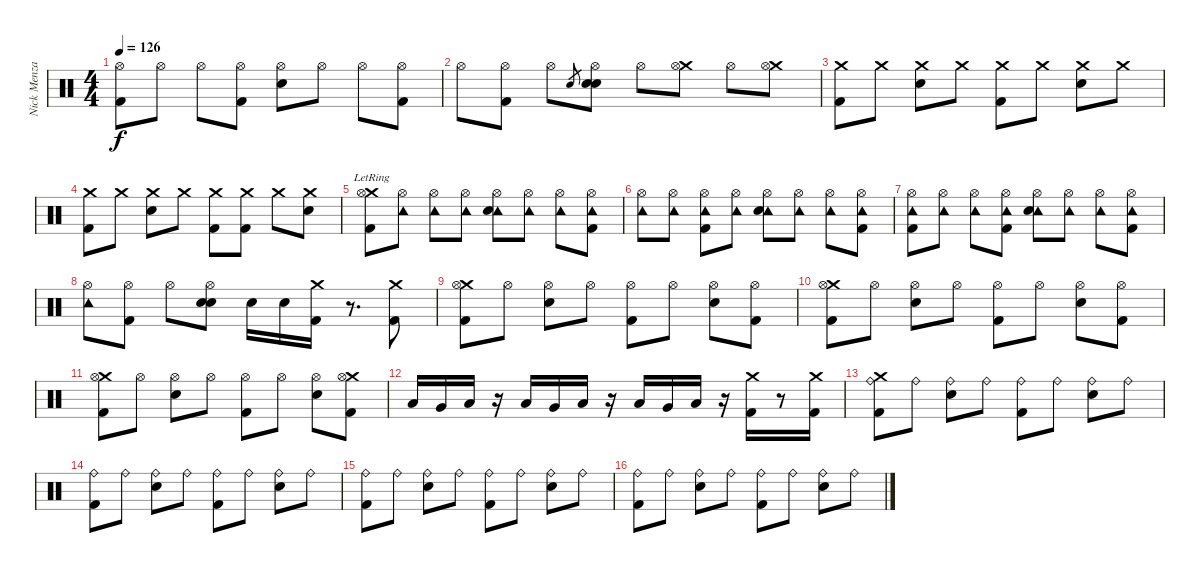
\track ("Nick Menza" "Nick Menza") {instrument percussion}
\staff {score}
\articulation defaults
\ts (4 4)
\tempo 126
\clef neutral
\ks c
("Hi-Hat (open)" "Kick (hit) 2").8{dy f} "Hi-Hat (open)".8 "Hi-Hat (open)".8 ("Hi-Hat (open)" "Kick (hit) 2").8 ("Hi-Hat (open)" "Electric Snare (hit)").8 "Hi-Hat (open)".8 "Hi-Hat (open)".8 ("Hi-Hat (open)" "Kick (hit) 2").8 |
"Hi-Hat (open)".8 ("Hi-Hat (open)" "Kick (hit) 2").8 "Hi-Hat (open)".8 "Electric Snare (hit)".8{gr} ("Electric Snare (hit)" "Hi-Hat (open)" "Electric Snare (hit)").8 "Hi-Hat (open)".8 ("Crash medium (hit)" "Hi-Hat (open)").8 "Hi-Hat (open)".8 ("Crash medium (hit)" "Hi-Hat (open)").8 |
("Crash medium (hit)" "Kick (hit) 2").8 "Crash medium (hit)".8 ("Crash medium (hit)" "Electric Snare (hit)").8 "Crash medium (hit)".8 ("Crash medium (hit)" "Kick (hit) 2").8 "Crash medium (hit)".8 ("Crash medium (hit)" "Electric Snare (hit)").8 "Crash medium (hit)".8 |
("Crash medium (hit)" "Kick (hit) 2").8 "Crash medium (hit)".8 ("Crash medium (hit)" "Electric Snare (hit)").8 "Crash medium (hit)".8 ("Crash medium (hit)" "Kick (hit) 2").8 ("Crash medium (hit)" "Kick (hit) 2").8 "Crash medium (hit)".8 ("Crash medium (hit)" "Electric Snare (hit)").8 |
("Crash medium (hit)"{lr} "Hi-Hat (open)" "Kick (hit) 2").8 ("Tambourine (hit)" "Hi-Hat (open)").8 ("Tambourine (hit)" "Hi-Hat (open)").8 ("Tambourine (hit)" "Hi-Hat (open)").8 ("Tambourine (hit)" "Hi-Hat (open)" "Electric Snare (hit)").8 ("Tambourine (hit)" "Hi-Hat (open)").8 ("Tambourine (hit)" "Hi-Hat (open)").8 ("Tambourine (hit)" "Hi-Hat (open)" "Kick (hit) 2").8 |
("Tambourine (hit)" "Hi-Hat (open)").8 ("Tambourine (hit)" "Hi-Hat (open)").8 ("Tambourine (hit)" "Hi-Hat (open)" "Kick (hit) 2").8 ("Tambourine (hit)" "Hi-Hat (open)").8 ("Tambourine (hit)" "Hi-Hat (open)" "Electric Snare (hit)").8 ("Tambourine (hit)" "Hi-Hat (open)").8 ("Tambourine (hit)" "Hi-Hat (open)").8 ("Tambourine (hit)" "Hi-Hat (open)" "Kick (hit) 2").8 |
("Tambourine (hit)" "Hi-Hat (open)" "Kick (hit) 2").8 ("Tambourine (hit)" "Hi-Hat (open)").8 ("Tambourine (hit)" "Hi-Hat (open)").8 ("Tambourine (hit)" "Hi-Hat (open)" "Kick (hit) 2").8 ("Tambourine (hit)" "Hi-Hat (open)" "Electric Snare (hit)").8 ("Tambourine (hit)" "Hi-Hat (open)").8 ("Tambourine (hit)" "Hi-Hat (open)").8 ("Tambourine (hit)" "Hi-Hat (open)" "Kick (hit) 2").8 |
("Tambourine (hit)" "Hi-Hat (open)").8 ("Hi-Hat (open)" "Kick (hit) 2").8 "Hi-Hat (open)".8 ("Electric Snare (hit)" "Hi-Hat (open)" "Electric Snare (hit)").8 "Electric Snare (hit)".16 "Electric Snare (hit)".16 ("Crash medium (hit)" "Kick (hit) 2").16 r.8{d} ("Crash medium (hit)" "Kick (hit) 2").8 |
("Crash medium (hit)" "Hi-Hat (open)" "Kick (hit) 2").8 "Hi-Hat (open)".8 ("Hi-Hat (open)" "Electric Snare (hit)").8 "Hi-Hat (open)".8 ("Hi-Hat (open)" "Kick (hit) 2").8 "Hi-Hat (open)".8 ("Hi-Hat (open)" "Electric Snare (hit)").8 ("Hi-Hat (open)" "Kick (hit) 2").8 |
("Crash medium (hit)" "Hi-Hat (open)" "Kick (hit) 2").8 "Hi-Hat (open)".8 ("Hi-Hat (open)" "Electric Snare (hit)").8 "Hi-Hat (open)".8 ("Hi-Hat (open)" "Kick (hit) 2").8 "Hi-Hat (open)".8 ("Hi-Hat (open)" "Electric Snare (hit)").8 ("Hi-Hat (open)" "Kick (hit) 2").8 |
("Crash medium (hit)" "Hi-Hat (open)" "Kick (hit) 2").8 "Hi-Hat (open)".8 ("Hi-Hat (open)" "Electric Snare (hit)").8 "Hi-Hat (open)".8 ("Hi-Hat (open)" "Kick (hit) 2").8 "Hi-Hat (open)".8 ("Hi-Hat (open)" "Electric Snare (hit)").8 ("Crash medium (hit)" "Hi-Hat (open)" "Kick (hit) 2").8 |
"Low Tom (hit)".16 "Very Low Tom (hit)".16 "Low Floor Tom (hit)".16 r.16 "Low Tom (hit)".16 "Very Low Tom (hit)".16 "Low Floor Tom (hit)".16 r.16 "Low Tom (hit)".16 "Very Low Tom (hit)".16 "Low Floor Tom (hit)".16 r.16 ("Crash medium (hit)" "Kick (hit) 2").16 r.8 ("Crash medium (hit)" "Kick (hit) 2").16 |
("Crash medium (hit)" "Ride (bell)" "Kick (hit) 2").8 "Ride (bell)".8 ("Electric Snare (hit)" "Ride (bell)").8 "Ride (bell)".8 ("Ride (bell)" "Kick (hit) 2").8 "Ride (bell)".8 ("Electric Snare (hit)" "Ride (bell)").8 "Ride (bell)".8 |
("Ride (bell)" "Kick (hit) 2").8 "Ride (bell)".8 ("Electric Snare (hit)" "Ride (bell)").8 "Ride (bell)".8 ("Ride (bell)" "Kick (hit) 2").8 "Ride (bell)".8 ("Electric Snare (hit)" "Ride (bell)").8 "Ride (bell)".8 |
("Ride (bell)" "Kick (hit) 2").8 "Ride (bell)".8 ("Electric Snare (hit)" "Ride (bell)").8 "Ride (bell)".8 ("Ride (bell)" "Kick (hit) 2").8 "Ride (bell)".8 ("Electric Snare (hit)" "Ride (bell)").8 "Ride (bell)".8 |
("Ride (bell)" "Kick (hit) 2").8 "Ride (bell)".8 ("Electric Snare (hit)" "Ride (bell)").8 "Ride (bell)".8 ("Ride (bell)" "Kick (hit) 2").8 "Ride (bell)".8 ("Electric Snare (hit)" "Ride (bell)").8 "Ride (bell)".8
